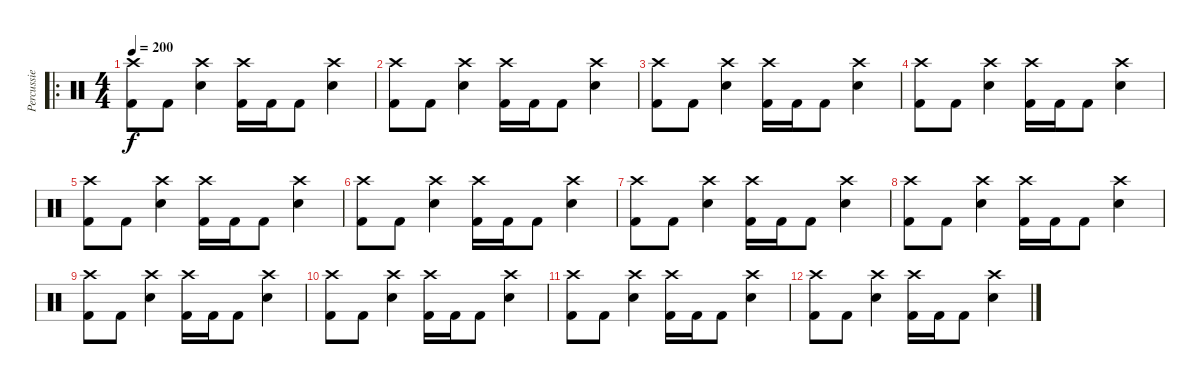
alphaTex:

\track ("Percussie" "Percussie") {instrument percussion}
\staff {score}
\articulation defaults
\ro
\ts (4 4)
\tempo 200
\clef neutral
\ks c
("Crash high (hit)" "Kick (hit) 2").8{dy f} "Kick (hit) 2".8 ("Crash high (hit)" "Snare (hit) 2").4 ("Crash high (hit)" "Kick (hit) 2").16 "Kick (hit) 2".16 "Kick (hit) 2".8 ("Crash high (hit)" "Snare (hit) 2").4 |
("Crash high (hit)" "Kick (hit) 2").8 "Kick (hit) 2".8 ("Crash high (hit)" "Snare (hit) 2").4 ("Crash high (hit)" "Kick (hit) 2").16 "Kick (hit) 2".16 "Kick (hit) 2".8 ("Crash high (hit)" "Snare (hit) 2").4 |
("Crash high (hit)" "Kick (hit) 2").8 "Kick (hit) 2".8 ("Crash high (hit)" "Snare (hit) 2").4 ("Crash high (hit)" "Kick (hit) 2").16 "Kick (hit) 2".16 "Kick (hit) 2".8 ("Crash high (hit)" "Snare (hit) 2").4 |
("Crash high (hit)" "Kick (hit) 2").8 "Kick (hit) 2".8 ("Crash high (hit)" "Snare (hit) 2").4 ("Crash high (hit)" "Kick (hit) 2").16 "Kick (hit) 2".16 "Kick (hit) 2".8 ("Crash high (hit)" "Snare (hit) 2").4 |
("Crash high (hit)" "Kick (hit) 2").8 "Kick (hit) 2".8 ("Crash high (hit)" "Snare (hit) 2").4 ("Crash high (hit)" "Kick (hit) 2").16 "Kick (hit) 2".16 "Kick (hit) 2".8 ("Crash high (hit)" "Snare (hit) 2").4 |
("Crash high (hit)" "Kick (hit) 2").8 "Kick (hit) 2".8 ("Crash high (hit)" "Snare (hit) 2").4 ("Crash high (hit)" "Kick (hit) 2").16 "Kick (hit) 2".16 "Kick (hit) 2".8 ("Crash high (hit)" "Snare (hit) 2").4 |
("Crash high (hit)" "Kick (hit) 2").8 "Kick (hit) 2".8 ("Crash high (hit)" "Snare (hit) 2").4 ("Crash high (hit)" "Kick (hit) 2").16 "Kick (hit) 2".16 "Kick (hit) 2".8 ("Crash high (hit)" "Snare (hit) 2").4 |
("Crash high (hit)" "Kick (hit) 2").8 "Kick (hit) 2".8 ("Crash high (hit)" "Snare (hit) 2").4 ("Crash high (hit)" "Kick (hit) 2").16 "Kick (hit) 2".16 "Kick (hit) 2".8 ("Crash high (hit)" "Snare (hit) 2").4 |
("Crash high (hit)" "Kick (hit) 2").8 "Kick (hit) 2".8 ("Crash high (hit)" "Snare (hit) 2").4 ("Crash high (hit)" "Kick (hit) 2").16 "Kick (hit) 2".16 "Kick (hit) 2".8 ("Crash high (hit)" "Snare (hit) 2").4 |
("Crash high (hit)" "Kick (hit) 2").8 "Kick (hit) 2".8 ("Crash high (hit)" "Snare (hit) 2").4 ("Crash high (hit)" "Kick (hit) 2").16 "Kick (hit) 2".16 "Kick (hit) 2".8 ("Crash high (hit)" "Snare (hit) 2").4 |
("Crash high (hit)" "Kick (hit) 2").8 "Kick (hit) 2".8 ("Crash high (hit)" "Snare (hit) 2").4 ("Crash high (hit)" "Kick (hit) 2").16 "Kick (hit) 2".16 "Kick (hit) 2".8 ("Crash high (hit)" "Snare (hit) 2").4 |
("Crash high (hit)" "Kick (hit) 2").8 "Kick (hit) 2".8 ("Crash high (hit)" "Snare (hit) 2").4 ("Crash high (hit)" "Kick (hit) 2").16 "Kick (hit) 2".16 "Kick (hit) 2".8 ("Crash high (hit)" "Snare (hit) 2").4
